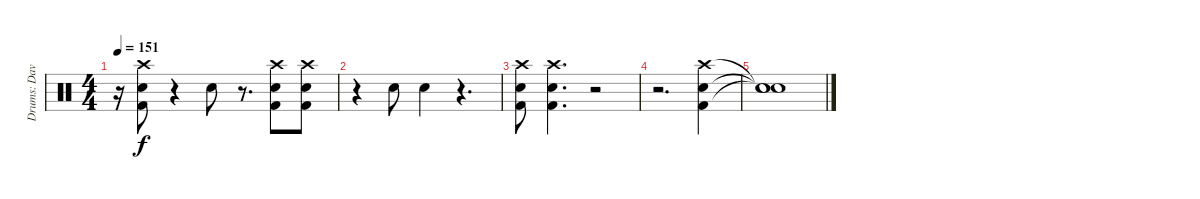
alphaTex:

\track ("Drums: Dave" "Drums: Dav") {instrument percussion}
\staff {score}
\articulation defaults
\ts (4 4)
\tempo 151
\clef neutral
\ks c
r.16{dy f} ("Crash high (hit)" "Snare (hit) 2" "Kick (hit) 2").8 r.4 "Snare (hit) 2".8 r.8{d} ("Crash high (hit)" "Snare (hit) 2" "Kick (hit) 2").8 ("Crash high (hit)" "Snare (hit) 2" "Kick (hit) 2").8 |
r.4 "Snare (hit) 2".8 "Snare (hit) 2".4 r.4{d} |
("Crash high (hit)" "Snare (hit) 2" "Kick (hit) 2").8 ("Crash high (hit)" "Snare (hit) 2" "Kick (hit) 2").4{d} r.2 |
r.2{d} ("Crash high (hit)" "Snare (hit) 2" "Kick (hit) 2").4 |
("Snare (hit)"{t} "Snare (hit)"{t} "Snare (hit)"{t}).1
